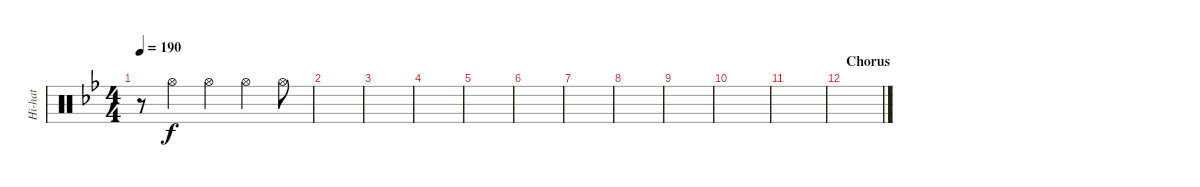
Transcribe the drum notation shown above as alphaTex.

\track ("Hi-hat" "Hi-hat") {instrument percussion}
\staff {score}
\articulation defaults
\ts (4 4)
\tempo 190
\clef neutral
\ks bb
r.8{dy f} "Hi-Hat (open)".4 "Hi-Hat (open)".4 "Hi-Hat (open)".4 "Hi-Hat (open)".8 |
|
|
|
|
|
|
|
|
|
|
\section ("" "Chorus")
